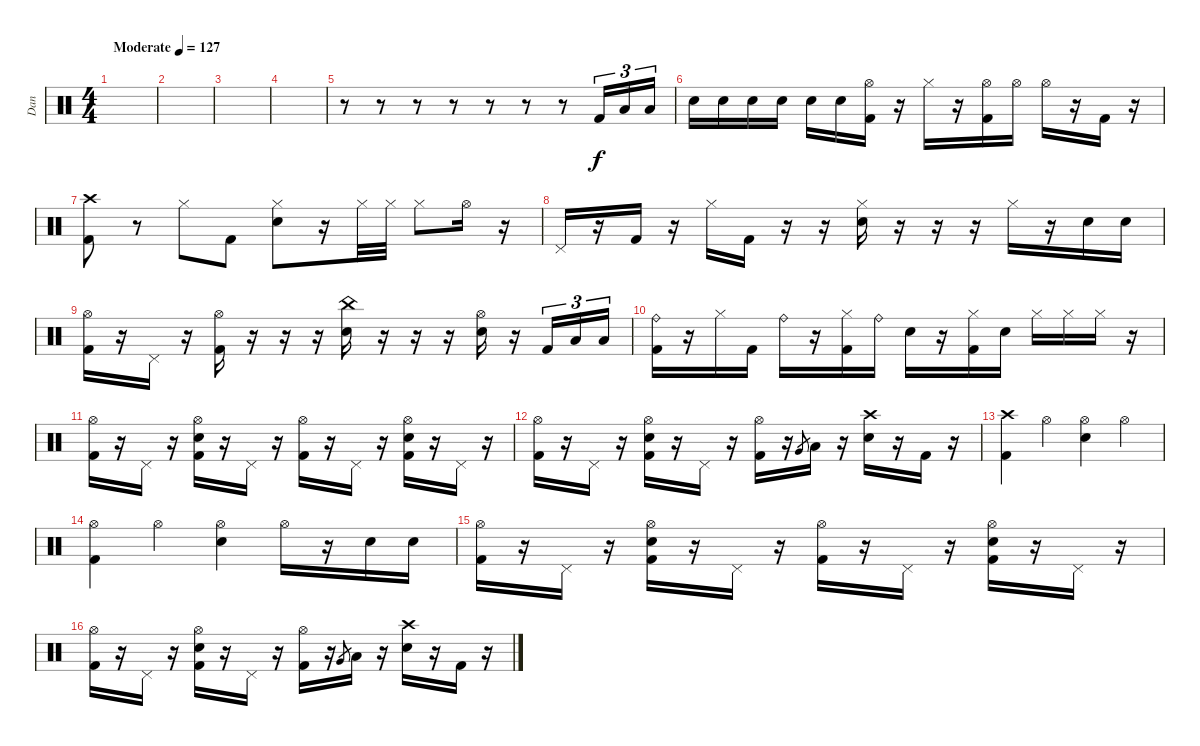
\track ("Dan" "Dan") {instrument percussion}
\staff {score}
\articulation defaults
\ts (4 4)
\tempo (127 "Moderate")
\clef neutral
\ks c
|
|
|
|
r.8 r.8 r.8 r.8 r.8 r.8 r.8 "Kick (hit) 2".16{tu (3 2)} "Low Tom (hit)".16{tu (3 2)} "Low Tom (hit)".16{tu (3 2)} |
"Electric Snare (hit)".16 "Electric Snare (hit)".16 "Electric Snare (hit)".16 "Electric Snare (hit)".16 "Electric Snare (hit)".16 "Electric Snare (hit)".16 ("Hi-Hat (open)" "Kick (hit) 2").16 r.16 "Hi-Hat (closed)".16 r.16 ("Hi-Hat (open)" "Kick (hit) 2").16 "Hi-Hat (open)".16 "Hi-Hat (open)".16 r.16 "Kick (hit) 2".16 r.16 |
("Crash high (hit)" "Kick (hit) 2").8 r.8 "Hi-Hat (closed)".8 "Kick (hit) 2".8 ("Hi-Hat (closed)" "Electric Snare (hit)").8 r.16 "Hi-Hat (closed)".32 "Hi-Hat (closed)".32 "Hi-Hat (closed)".8 "Hi-Hat (open)".16 r.16 |
"Pedal Hi-Hat (hit)".16 r.16 "Kick (hit) 2".16 r.16 "Hi-Hat (closed)".16 "Kick (hit) 2".16 r.16 r.16 ("Hi-Hat (closed)" "Electric Snare (hit)").16 r.16 r.16 r.16 "Hi-Hat (closed)".16 r.16 "Electric Snare (hit)".16 "Electric Snare (hit)".16 |
("Hi-Hat (open)" "Kick (hit) 2").16 r.16 "Pedal Hi-Hat (hit)".16 r.16 ("Hi-Hat (open)" "Kick (hit) 2").16 r.16 r.16 r.16 ("China (hit)" "Electric Snare (hit)").16 r.16 r.16 r.16 ("Hi-Hat (open)" "Electric Snare (hit)").16 r.16 "Kick (hit) 2".16{tu (3 2)} "Low Tom (hit)".16{tu (3 2)} "Low Tom (hit)".16{tu (3 2)} |
("Ride (bell)" "Kick (hit) 2").16 r.16 "Hi-Hat (closed)".16 "Kick (hit) 2".16 "Ride (bell)".16 r.16 ("Hi-Hat (closed)" "Kick (hit) 2").16 "Ride (bell)".16 "Electric Snare (hit)".16 r.16 ("Hi-Hat (closed)" "Kick (hit) 2").16 "Electric Snare (hit)".16 "Hi-Hat (closed)".16 "Hi-Hat (closed)".16 "Hi-Hat (closed)".16 r.16 |
("Hi-Hat (open)" "Kick (hit) 2").16 r.16 "Pedal Hi-Hat (hit)".16 r.16 ("Hi-Hat (open)" "Electric Snare (hit)" "Kick (hit) 2").16 r.16 "Pedal Hi-Hat (hit)".16 r.16 ("Hi-Hat (open)" "Kick (hit) 2").16 r.16 "Pedal Hi-Hat (hit)".16 r.16 ("Hi-Hat (open)" "Electric Snare (hit)" "Kick (hit) 2").16 r.16 "Pedal Hi-Hat (hit)".16 r.16 |
("Hi-Hat (open)" "Kick (hit) 2").16 r.16 "Pedal Hi-Hat (hit)".16 r.16 ("Hi-Hat (open)" "Electric Snare (hit)" "Kick (hit) 2").16 r.16 "Pedal Hi-Hat (hit)".16 r.16 ("Hi-Hat (open)" "Kick (hit) 2").16 r.16 "Very Low Tom (hit)".8{gr} "Low Tom (hit)".16 r.16 ("Crash high (hit)" "Electric Snare (hit)").16 r.16 "Kick (hit) 2".16 r.16 |
("Crash high (hit)" "Kick (hit) 2").4 "Hi-Hat (open)".4 ("Hi-Hat (open)" "Electric Snare (hit)").4 "Hi-Hat (open)".4 |
("Hi-Hat (open)" "Kick (hit) 2").4 "Hi-Hat (open)".4 ("Hi-Hat (open)" "Electric Snare (hit)").4 "Hi-Hat (open)".16 r.16 "Electric Snare (hit)".16 "Electric Snare (hit)".16 |
("Hi-Hat (open)" "Kick (hit) 2").16 r.16 "Pedal Hi-Hat (hit)".16 r.16 ("Hi-Hat (open)" "Electric Snare (hit)" "Kick (hit) 2").16 r.16 "Pedal Hi-Hat (hit)".16 r.16 ("Hi-Hat (open)" "Kick (hit) 2").16 r.16 "Pedal Hi-Hat (hit)".16 r.16 ("Hi-Hat (open)" "Electric Snare (hit)" "Kick (hit) 2").16 r.16 "Pedal Hi-Hat (hit)".16 r.16 |
("Hi-Hat (open)" "Kick (hit) 2").16 r.16 "Pedal Hi-Hat (hit)".16 r.16 ("Hi-Hat (open)" "Electric Snare (hit)" "Kick (hit) 2").16 r.16 "Pedal Hi-Hat (hit)".16 r.16 ("Hi-Hat (open)" "Kick (hit) 2").16 r.16 "Very Low Tom (hit)".8{gr} "Low Tom (hit)".16 r.16 ("Crash high (hit)" "Electric Snare (hit)").16 r.16 "Kick (hit) 2".16 r.16
